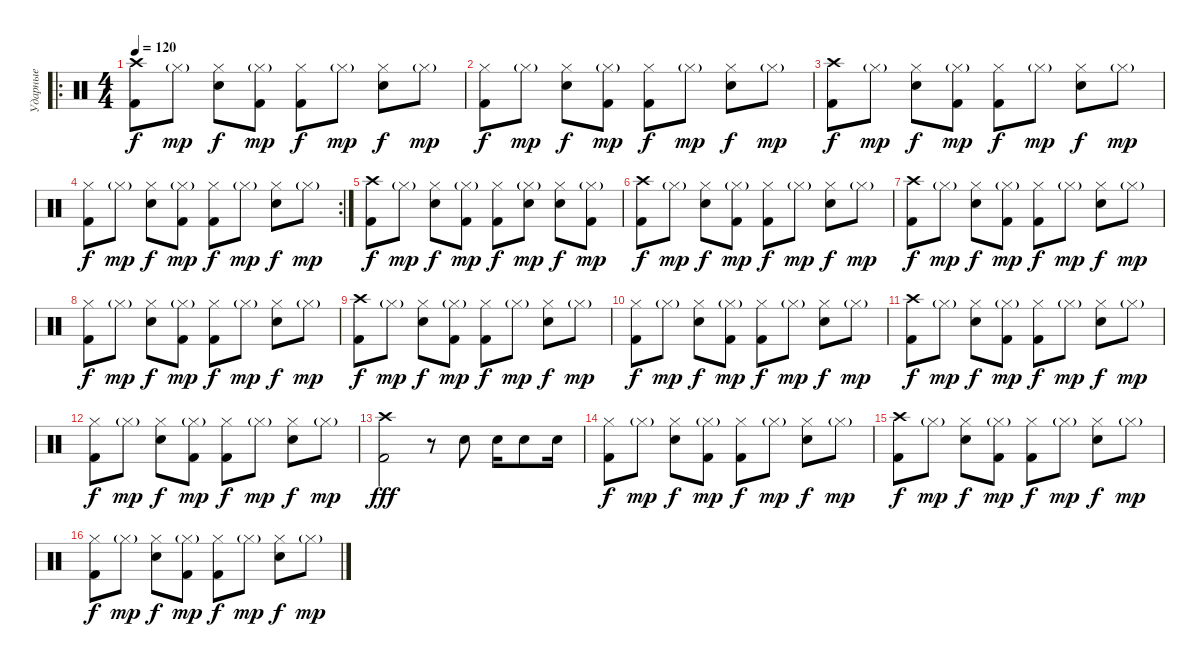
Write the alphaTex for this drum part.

\track ("Ударные" "Ударные") {instrument percussion}
\staff {score}
\articulation defaults
\ro
\ts (4 4)
\tempo 120
\clef neutral
\ks c
("Kick (hit) 2" "Crash high (hit)").8{dy f} "Hi-Hat (closed)"{g}.8{dy mp} ("Electric Snare (hit)" "Hi-Hat (closed)").8{dy f} ("Kick (hit) 2" "Hi-Hat (closed)"{g}).8{dy mp} ("Kick (hit) 2" "Hi-Hat (closed)").8{dy f} "Hi-Hat (closed)"{g}.8{dy mp} ("Electric Snare (hit)" "Hi-Hat (closed)").8{dy f} "Hi-Hat (closed)"{g}.8{dy mp} |
("Kick (hit) 2" "Hi-Hat (closed)").8{dy f} "Hi-Hat (closed)"{g}.8{dy mp} ("Electric Snare (hit)" "Hi-Hat (closed)").8{dy f} ("Kick (hit) 2" "Hi-Hat (closed)"{g}).8{dy mp} ("Kick (hit) 2" "Hi-Hat (closed)").8{dy f} "Hi-Hat (closed)"{g}.8{dy mp} ("Electric Snare (hit)" "Hi-Hat (closed)").8{dy f} "Hi-Hat (closed)"{g}.8{dy mp} |
("Kick (hit) 2" "Crash high (hit)").8{dy f} "Hi-Hat (closed)"{g}.8{dy mp} ("Electric Snare (hit)" "Hi-Hat (closed)").8{dy f} ("Kick (hit) 2" "Hi-Hat (closed)"{g}).8{dy mp} ("Kick (hit) 2" "Hi-Hat (closed)").8{dy f} "Hi-Hat (closed)"{g}.8{dy mp} ("Electric Snare (hit)" "Hi-Hat (closed)").8{dy f} "Hi-Hat (closed)"{g}.8{dy mp} |
\rc 2
("Kick (hit) 2" "Hi-Hat (closed)").8{dy f} "Hi-Hat (closed)"{g}.8{dy mp} ("Electric Snare (hit)" "Hi-Hat (closed)").8{dy f} ("Kick (hit) 2" "Hi-Hat (closed)"{g}).8{dy mp} ("Kick (hit) 2" "Hi-Hat (closed)").8{dy f} "Hi-Hat (closed)"{g}.8{dy mp} ("Electric Snare (hit)" "Hi-Hat (closed)").8{dy f} "Hi-Hat (closed)"{g}.8{dy mp} |
("Kick (hit) 2" "Crash high (hit)").8{dy f} "Hi-Hat (closed)"{g}.8{dy mp} ("Electric Snare (hit)" "Hi-Hat (closed)").8{dy f} ("Kick (hit) 2" "Hi-Hat (closed)"{g}).8{dy mp} ("Kick (hit) 2" "Hi-Hat (closed)").8{dy f} ("Electric Snare (hit)" "Hi-Hat (closed)"{g}).8{dy mp} ("Electric Snare (hit)" "Hi-Hat (closed)").8{dy f} ("Kick (hit) 2" "Hi-Hat (closed)"{g}).8{dy mp} |
("Kick (hit) 2" "Crash high (hit)").8{dy f} "Hi-Hat (closed)"{g}.8{dy mp} ("Electric Snare (hit)" "Hi-Hat (closed)").8{dy f} ("Kick (hit) 2" "Hi-Hat (closed)"{g}).8{dy mp} ("Kick (hit) 2" "Hi-Hat (closed)").8{dy f} "Hi-Hat (closed)"{g}.8{dy mp} ("Electric Snare (hit)" "Hi-Hat (closed)").8{dy f} "Hi-Hat (closed)"{g}.8{dy mp} |
("Kick (hit) 2" "Crash high (hit)").8{dy f} "Hi-Hat (closed)"{g}.8{dy mp} ("Electric Snare (hit)" "Hi-Hat (closed)").8{dy f} ("Kick (hit) 2" "Hi-Hat (closed)"{g}).8{dy mp} ("Kick (hit) 2" "Hi-Hat (closed)").8{dy f} "Hi-Hat (closed)"{g}.8{dy mp} ("Electric Snare (hit)" "Hi-Hat (closed)").8{dy f} "Hi-Hat (closed)"{g}.8{dy mp} |
("Kick (hit) 2" "Hi-Hat (closed)").8{dy f} "Hi-Hat (closed)"{g}.8{dy mp} ("Electric Snare (hit)" "Hi-Hat (closed)").8{dy f} ("Kick (hit) 2" "Hi-Hat (closed)"{g}).8{dy mp} ("Kick (hit) 2" "Hi-Hat (closed)").8{dy f} "Hi-Hat (closed)"{g}.8{dy mp} ("Electric Snare (hit)" "Hi-Hat (closed)").8{dy f} "Hi-Hat (closed)"{g}.8{dy mp} |
("Kick (hit) 2" "Crash high (hit)").8{dy f} "Hi-Hat (closed)"{g}.8{dy mp} ("Electric Snare (hit)" "Hi-Hat (closed)").8{dy f} ("Kick (hit) 2" "Hi-Hat (closed)"{g}).8{dy mp} ("Kick (hit) 2" "Hi-Hat (closed)").8{dy f} "Hi-Hat (closed)"{g}.8{dy mp} ("Electric Snare (hit)" "Hi-Hat (closed)").8{dy f} "Hi-Hat (closed)"{g}.8{dy mp} |
("Kick (hit) 2" "Hi-Hat (closed)").8{dy f} "Hi-Hat (closed)"{g}.8{dy mp} ("Electric Snare (hit)" "Hi-Hat (closed)").8{dy f} ("Kick (hit) 2" "Hi-Hat (closed)"{g}).8{dy mp} ("Kick (hit) 2" "Hi-Hat (closed)").8{dy f} "Hi-Hat (closed)"{g}.8{dy mp} ("Electric Snare (hit)" "Hi-Hat (closed)").8{dy f} "Hi-Hat (closed)"{g}.8{dy mp} |
("Kick (hit) 2" "Crash high (hit)").8{dy f} "Hi-Hat (closed)"{g}.8{dy mp} ("Electric Snare (hit)" "Hi-Hat (closed)").8{dy f} ("Kick (hit) 2" "Hi-Hat (closed)"{g}).8{dy mp} ("Kick (hit) 2" "Hi-Hat (closed)").8{dy f} "Hi-Hat (closed)"{g}.8{dy mp} ("Electric Snare (hit)" "Hi-Hat (closed)").8{dy f} "Hi-Hat (closed)"{g}.8{dy mp} |
("Kick (hit) 2" "Hi-Hat (closed)").8{dy f} "Hi-Hat (closed)"{g}.8{dy mp} ("Electric Snare (hit)" "Hi-Hat (closed)").8{dy f} ("Kick (hit) 2" "Hi-Hat (closed)"{g}).8{dy mp} ("Kick (hit) 2" "Hi-Hat (closed)").8{dy f} "Hi-Hat (closed)"{g}.8{dy mp} ("Electric Snare (hit)" "Hi-Hat (closed)").8{dy f} "Hi-Hat (closed)"{g}.8{dy mp} |
("Kick (hit) 2" "Crash high (hit)").2{dy fff} r.8 "Electric Snare (hit)".8 "Electric Snare (hit)".16 "Electric Snare (hit)".8 "Electric Snare (hit)".16 |
("Kick (hit) 2" "Hi-Hat (closed)").8{dy f} "Hi-Hat (closed)"{g}.8{dy mp} ("Electric Snare (hit)" "Hi-Hat (closed)").8{dy f} ("Kick (hit) 2" "Hi-Hat (closed)"{g}).8{dy mp} ("Kick (hit) 2" "Hi-Hat (closed)").8{dy f} "Hi-Hat (closed)"{g}.8{dy mp} ("Electric Snare (hit)" "Hi-Hat (closed)").8{dy f} "Hi-Hat (closed)"{g}.8{dy mp} |
("Kick (hit) 2" "Crash high (hit)").8{dy f} "Hi-Hat (closed)"{g}.8{dy mp} ("Electric Snare (hit)" "Hi-Hat (closed)").8{dy f} ("Kick (hit) 2" "Hi-Hat (closed)"{g}).8{dy mp} ("Kick (hit) 2" "Hi-Hat (closed)").8{dy f} "Hi-Hat (closed)"{g}.8{dy mp} ("Electric Snare (hit)" "Hi-Hat (closed)").8{dy f} "Hi-Hat (closed)"{g}.8{dy mp} |
("Kick (hit) 2" "Hi-Hat (closed)").8{dy f} "Hi-Hat (closed)"{g}.8{dy mp} ("Electric Snare (hit)" "Hi-Hat (closed)").8{dy f} ("Kick (hit) 2" "Hi-Hat (closed)"{g}).8{dy mp} ("Kick (hit) 2" "Hi-Hat (closed)").8{dy f} "Hi-Hat (closed)"{g}.8{dy mp} ("Electric Snare (hit)" "Hi-Hat (closed)").8{dy f} "Hi-Hat (closed)"{g}.8{dy mp}
